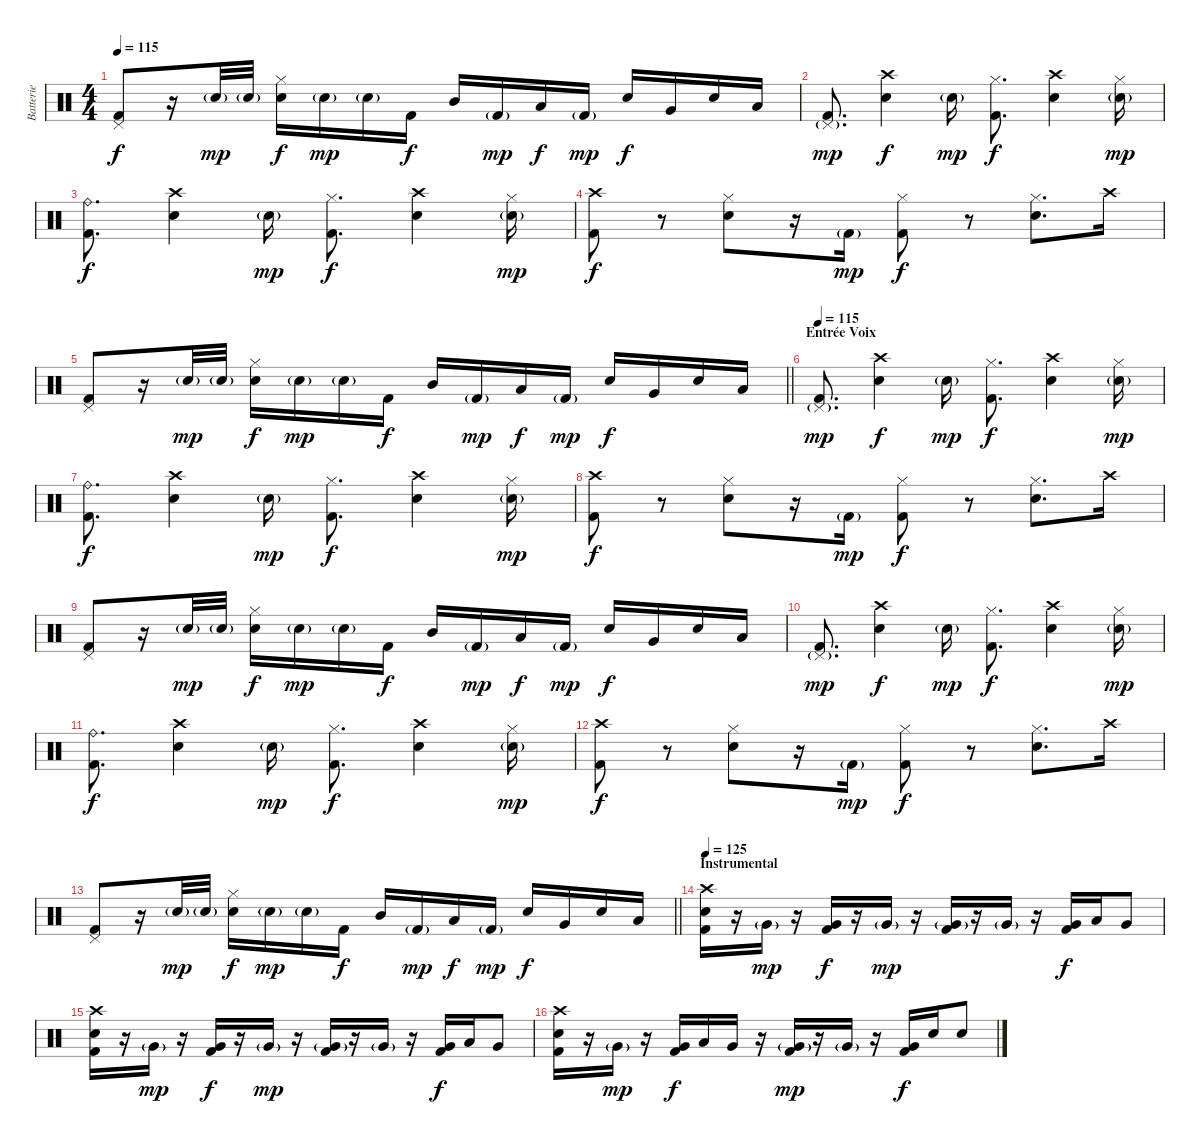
\track ("Batterie" "Batterie") {instrument percussion}
\staff {score}
\articulation defaults
\ts (4 4)
\tempo 115
\clef neutral
\ks c
("Pedal Hi-Hat (hit)" "Kick (hit) 2").8{dy f} r.16 "Electric Snare (hit)"{g}.32{dy mp} "Electric Snare (hit)"{g}.32 ("Hi-Hat (closed)" "Electric Snare (hit)").16{dy f} "Electric Snare (hit)"{g}.16{dy mp} "Electric Snare (hit)"{g}.16 "Kick (hit) 2".16{dy f} "Mid Tom (hit)".16 "Kick (hit) 2"{g}.16{dy mp} "Low Tom (hit)".16{dy f} "Kick (hit) 2"{g}.16{dy mp} "Electric Snare (hit)".16{dy f} "Very Low Tom (hit)".16 "Electric Snare (hit)".16 "Low Floor Tom (hit)".16 |
("Pedal Hi-Hat (hit)"{g} "Kick (hit) 2").8{d dy mp} ("Crash high (hit)" "Electric Snare (hit)").4{dy f} "Electric Snare (hit)"{g}.16{dy mp} ("Hi-Hat (closed)" "Kick (hit) 2").8{d dy f} ("Crash high (hit)" "Electric Snare (hit)").4 ("Hi-Hat (closed)" "Electric Snare (hit)"{g}).16{dy mp} |
("Ride (bell)" "Kick (hit) 2").8{d dy f} ("Crash high (hit)" "Electric Snare (hit)").4 "Electric Snare (hit)"{g}.16{dy mp} ("Hi-Hat (closed)" "Kick (hit) 2").8{d dy f} ("Crash high (hit)" "Electric Snare (hit)").4 ("Hi-Hat (closed)" "Electric Snare (hit)"{g}).16{dy mp} |
("Crash high (hit)" "Kick (hit) 2").8{dy f} r.8 ("Hi-Hat (closed)" "Electric Snare (hit)").8 r.16 "Kick (hit) 2"{g}.16{dy mp} ("Hi-Hat (closed)" "Kick (hit) 2").8{dy f} r.8 ("Hi-Hat (closed)" "Electric Snare (hit)").8{d} "Crash high (hit)".16 |
\barLineRight lightlight
("Pedal Hi-Hat (hit)" "Kick (hit) 2").8 r.16 "Electric Snare (hit)"{g}.32{dy mp} "Electric Snare (hit)"{g}.32 ("Hi-Hat (closed)" "Electric Snare (hit)").16{dy f} "Electric Snare (hit)"{g}.16{dy mp} "Electric Snare (hit)"{g}.16 "Kick (hit) 2".16{dy f} "Mid Tom (hit)".16 "Kick (hit) 2"{g}.16{dy mp} "Low Tom (hit)".16{dy f} "Kick (hit) 2"{g}.16{dy mp} "Electric Snare (hit)".16{dy f} "Very Low Tom (hit)".16 "Electric Snare (hit)".16 "Low Floor Tom (hit)".16 |
\section ("" "Entrée Voix")
\tempo 115
("Pedal Hi-Hat (hit)"{g} "Kick (hit) 2").8{d dy mp} ("Crash high (hit)" "Electric Snare (hit)").4{dy f} "Electric Snare (hit)"{g}.16{dy mp} ("Hi-Hat (closed)" "Kick (hit) 2").8{d dy f} ("Crash high (hit)" "Electric Snare (hit)").4 ("Hi-Hat (closed)" "Electric Snare (hit)"{g}).16{dy mp} |
("Ride (bell)" "Kick (hit) 2").8{d dy f} ("Crash high (hit)" "Electric Snare (hit)").4 "Electric Snare (hit)"{g}.16{dy mp} ("Hi-Hat (closed)" "Kick (hit) 2").8{d dy f} ("Crash high (hit)" "Electric Snare (hit)").4 ("Hi-Hat (closed)" "Electric Snare (hit)"{g}).16{dy mp} |
("Crash high (hit)" "Kick (hit) 2").8{dy f} r.8 ("Hi-Hat (closed)" "Electric Snare (hit)").8 r.16 "Kick (hit) 2"{g}.16{dy mp} ("Hi-Hat (closed)" "Kick (hit) 2").8{dy f} r.8 ("Hi-Hat (closed)" "Electric Snare (hit)").8{d} "Crash high (hit)".16 |
("Pedal Hi-Hat (hit)" "Kick (hit) 2").8 r.16 "Electric Snare (hit)"{g}.32{dy mp} "Electric Snare (hit)"{g}.32 ("Hi-Hat (closed)" "Electric Snare (hit)").16{dy f} "Electric Snare (hit)"{g}.16{dy mp} "Electric Snare (hit)"{g}.16 "Kick (hit) 2".16{dy f} "Mid Tom (hit)".16 "Kick (hit) 2"{g}.16{dy mp} "Low Tom (hit)".16{dy f} "Kick (hit) 2"{g}.16{dy mp} "Electric Snare (hit)".16{dy f} "Very Low Tom (hit)".16 "Electric Snare (hit)".16 "Low Floor Tom (hit)".16 |
("Pedal Hi-Hat (hit)"{g} "Kick (hit) 2").8{d dy mp} ("Crash high (hit)" "Electric Snare (hit)").4{dy f} "Electric Snare (hit)"{g}.16{dy mp} ("Hi-Hat (closed)" "Kick (hit) 2").8{d dy f} ("Crash high (hit)" "Electric Snare (hit)").4 ("Hi-Hat (closed)" "Electric Snare (hit)"{g}).16{dy mp} |
("Ride (bell)" "Kick (hit) 2").8{d dy f} ("Crash high (hit)" "Electric Snare (hit)").4 "Electric Snare (hit)"{g}.16{dy mp} ("Hi-Hat (closed)" "Kick (hit) 2").8{d dy f} ("Crash high (hit)" "Electric Snare (hit)").4 ("Hi-Hat (closed)" "Electric Snare (hit)"{g}).16{dy mp} |
("Crash high (hit)" "Kick (hit) 2").8{dy f} r.8 ("Hi-Hat (closed)" "Electric Snare (hit)").8 r.16 "Kick (hit) 2"{g}.16{dy mp} ("Hi-Hat (closed)" "Kick (hit) 2").8{dy f} r.8 ("Hi-Hat (closed)" "Electric Snare (hit)").8{d} "Crash high (hit)".16 |
\barLineRight lightlight
("Pedal Hi-Hat (hit)" "Kick (hit) 2").8 r.16 "Electric Snare (hit)"{g}.32{dy mp} "Electric Snare (hit)"{g}.32 ("Hi-Hat (closed)" "Electric Snare (hit)").16{dy f} "Electric Snare (hit)"{g}.16{dy mp} "Electric Snare (hit)"{g}.16 "Kick (hit) 2".16{dy f} "Mid Tom (hit)".16 "Kick (hit) 2"{g}.16{dy mp} "Low Tom (hit)".16{dy f} "Kick (hit) 2"{g}.16{dy mp} "Electric Snare (hit)".16{dy f} "Very Low Tom (hit)".16 "Electric Snare (hit)".16 "Low Floor Tom (hit)".16 |
\section ("" "Instrumental")
\tempo 125
("Crash high (hit)" "Electric Snare (hit)" "Kick (hit) 2").16 r.16 "Very Low Tom (hit)"{g}.16{dy mp} r.16 ("Very Low Tom (hit)" "Kick (hit) 2").16{dy f} r.16 "Very Low Tom (hit)"{g}.16{dy mp} r.16 ("Very Low Tom (hit)"{g} "Kick (hit) 2").16 r.16 "Very Low Tom (hit)"{g}.16 r.16 ("Very Low Tom (hit)" "Kick (hit) 2").16{dy f} "Low Tom (hit)".16 "Very Low Tom (hit)".8 |
("Crash high (hit)" "Electric Snare (hit)" "Kick (hit) 2").16 r.16 "Very Low Tom (hit)"{g}.16{dy mp} r.16 ("Very Low Tom (hit)" "Kick (hit) 2").16{dy f} r.16 "Very Low Tom (hit)"{g}.16{dy mp} r.16 ("Very Low Tom (hit)"{g} "Kick (hit) 2").16 r.16 "Very Low Tom (hit)"{g}.16 r.16 ("Very Low Tom (hit)" "Kick (hit) 2").16{dy f} "Low Tom (hit)".16 "Very Low Tom (hit)".8 |
("Crash high (hit)" "Electric Snare (hit)" "Kick (hit) 2").16 r.16 "Very Low Tom (hit)"{g}.16{dy mp} r.16 ("Very Low Tom (hit)" "Kick (hit) 2").16{dy f} "Low Tom (hit)".16 "Very Low Tom (hit)".16 r.16 ("Very Low Tom (hit)"{g} "Kick (hit) 2").16{dy mp} r.16 "Very Low Tom (hit)"{g}.16 r.16 ("Very Low Tom (hit)" "Kick (hit) 2").16{dy f} "Electric Snare (hit)".16 "Electric Snare (hit)".8
